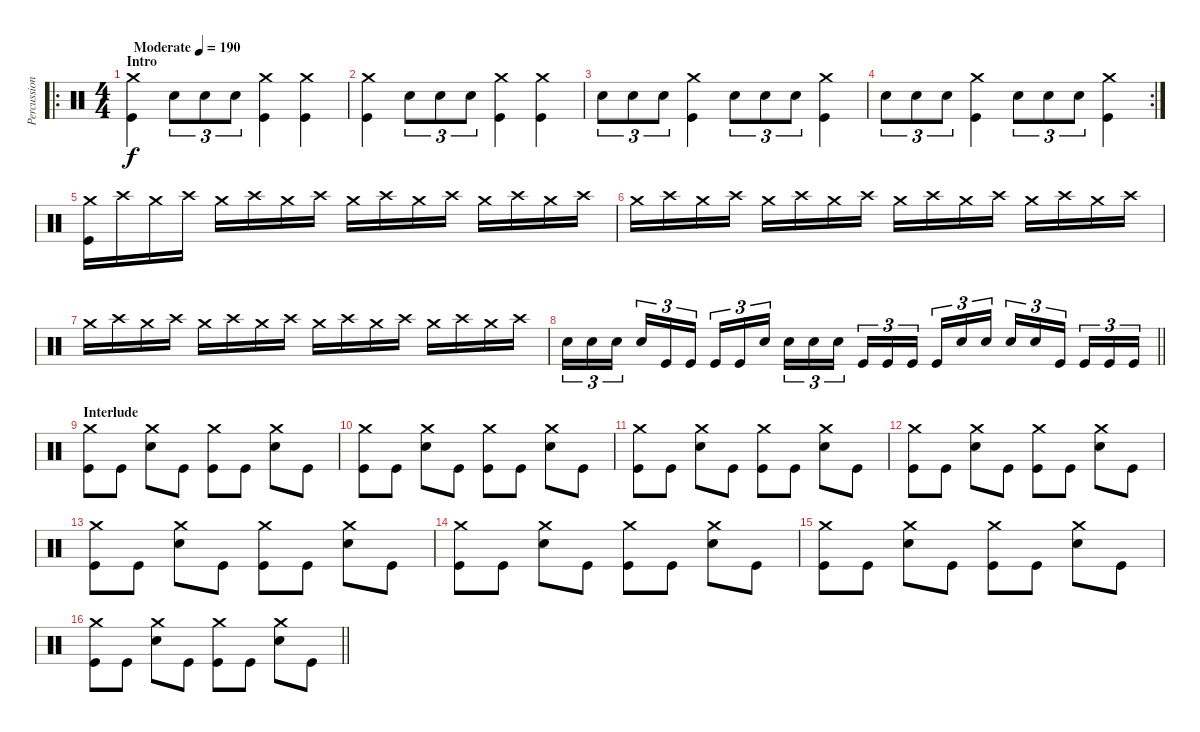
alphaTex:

\track ("Percussion" "Percussion") {instrument percussion}
\staff {score}
\articulation defaults
\ro
\ts (4 4)
\section ("" "Intro")
\tempo (190 "Moderate")
\clef neutral
\ks c
("Crash medium (hit)" "Kick (hit)").4{dy f} "Snare (hit) 2".8{tu (3 2)} "Snare (hit) 2".8{tu (3 2)} "Snare (hit) 2".8{tu (3 2)} ("Crash medium (hit)" "Kick (hit)").4 ("Crash medium (hit)" "Kick (hit)").4 |
("Crash medium (hit)" "Kick (hit)").4 "Snare (hit) 2".8{tu (3 2)} "Snare (hit) 2".8{tu (3 2)} "Snare (hit) 2".8{tu (3 2)} ("Crash medium (hit)" "Kick (hit)").4 ("Crash medium (hit)" "Kick (hit)").4 |
"Snare (hit) 2".8{tu (3 2)} "Snare (hit) 2".8{tu (3 2)} "Snare (hit) 2".8{tu (3 2)} ("Crash medium (hit)" "Kick (hit)").4 "Snare (hit) 2".8{tu (3 2)} "Snare (hit) 2".8{tu (3 2)} "Snare (hit) 2".8{tu (3 2)} ("Crash medium (hit)" "Kick (hit)").4 |
\rc 2 "Snare (hit) 2".8{tu (3 2)} "Snare (hit) 2".8{tu (3 2)} "Snare (hit) 2".8{tu (3 2)}
("Crash medium (hit)" "Kick (hit)").4 "Snare (hit) 2".8{tu (3 2)} "Snare (hit) 2".8{tu (3 2)} "Snare (hit) 2".8{tu (3 2)} ("Crash medium (hit)" "Kick (hit)").4 |
("Crash medium (hit)" "Kick (hit)").16 "Crash high (hit)".16 "Crash medium (hit)".16 "Crash high (hit)".16 "Crash medium (hit)".16 "Crash high (hit)".16 "Crash medium (hit)".16 "Crash high (hit)".16 "Crash medium (hit)".16 "Crash high (hit)".16 "Crash medium (hit)".16 "Crash high (hit)".16 "Crash medium (hit)".16 "Crash high (hit)".16 "Crash medium (hit)".16 "Crash high (hit)".16 |
"Crash medium (hit)".16 "Crash high (hit)".16 "Crash medium (hit)".16 "Crash high (hit)".16 "Crash medium (hit)".16 "Crash high (hit)".16 "Crash medium (hit)".16 "Crash high (hit)".16 "Crash medium (hit)".16 "Crash high (hit)".16 "Crash medium (hit)".16 "Crash high (hit)".16 "Crash medium (hit)".16 "Crash high (hit)".16 "Crash medium (hit)".16 "Crash high (hit)".16 |
"Crash medium (hit)".16 "Crash high (hit)".16 "Crash medium (hit)".16 "Crash high (hit)".16 "Crash medium (hit)".16 "Crash high (hit)".16 "Crash medium (hit)".16 "Crash high (hit)".16 "Crash medium (hit)".16 "Crash high (hit)".16 "Crash medium (hit)".16 "Crash high (hit)".16 "Crash medium (hit)".16 "Crash high (hit)".16 "Crash medium (hit)".16 "Crash high (hit)".16 |
\barLineRight lightlight "Snare (hit) 2".16{tu (3 2)} "Snare (hit) 2".16{tu (3 2)} "Snare (hit) 2".16{tu (3 2) beam splitsecondary} "Snare (hit) 2".16{tu (3 2)} "Kick (hit)".16{tu (3 2)} "Kick (hit)".16{tu (3 2)} "Kick (hit)".16{tu (3 2)} "Kick (hit)".16{tu (3 2)} "Snare (hit) 2".16{tu (3 2) beam splitsecondary} "Snare (hit) 2".16{tu (3 2)} "Snare (hit) 2".16{tu (3 2)} "Snare (hit) 2".16{tu (3 2)} "Kick (hit)".16{tu (3 2)} "Kick (hit)".16{tu (3 2)} "Kick (hit)".16{tu (3 2) beam splitsecondary} "Kick (hit)".16{tu (3 2)} "Snare (hit) 2".16{tu (3 2)} "Snare (hit) 2".16{tu (3 2)} "Snare (hit) 2".16{tu (3 2)} "Snare (hit) 2".16{tu (3 2)} "Kick (hit)".16{tu (3 2) beam splitsecondary} "Kick (hit)".16{tu (3 2)} "Kick (hit)".16{tu (3 2)} "Kick (hit)".16{tu (3 2)}
|
\section ("" "Interlude")
("Crash medium (hit)" "Kick (hit)").8 "Kick (hit)".8 ("Crash medium (hit)" "Snare (hit) 2").8 "Kick (hit)".8 ("Crash medium (hit)" "Kick (hit)").8 "Kick (hit)".8 ("Crash medium (hit)" "Snare (hit) 2").8 "Kick (hit)".8 |
("Crash medium (hit)" "Kick (hit)").8 "Kick (hit)".8 ("Crash medium (hit)" "Snare (hit) 2").8 "Kick (hit)".8 ("Crash medium (hit)" "Kick (hit)").8 "Kick (hit)".8 ("Crash medium (hit)" "Snare (hit) 2").8 "Kick (hit)".8 |
("Crash medium (hit)" "Kick (hit)").8 "Kick (hit)".8 ("Crash medium (hit)" "Snare (hit) 2").8 "Kick (hit)".8 ("Crash medium (hit)" "Kick (hit)").8 "Kick (hit)".8 ("Crash medium (hit)" "Snare (hit) 2").8 "Kick (hit)".8 |
("Crash medium (hit)" "Kick (hit)").8 "Kick (hit)".8 ("Crash medium (hit)" "Snare (hit) 2").8 "Kick (hit)".8 ("Crash medium (hit)" "Kick (hit)").8 "Kick (hit)".8 ("Crash medium (hit)" "Snare (hit) 2").8 "Kick (hit)".8 |
("Crash medium (hit)" "Kick (hit)").8 "Kick (hit)".8 ("Crash medium (hit)" "Snare (hit) 2").8 "Kick (hit)".8 ("Crash medium (hit)" "Kick (hit)").8 "Kick (hit)".8 ("Crash medium (hit)" "Snare (hit) 2").8 "Kick (hit)".8 |
("Crash medium (hit)" "Kick (hit)").8 "Kick (hit)".8 ("Crash medium (hit)" "Snare (hit) 2").8 "Kick (hit)".8 ("Crash medium (hit)" "Kick (hit)").8 "Kick (hit)".8 ("Crash medium (hit)" "Snare (hit) 2").8 "Kick (hit)".8 |
("Crash medium (hit)" "Kick (hit)").8 "Kick (hit)".8 ("Crash medium (hit)" "Snare (hit) 2").8 "Kick (hit)".8 ("Crash medium (hit)" "Kick (hit)").8 "Kick (hit)".8 ("Crash medium (hit)" "Snare (hit) 2").8 "Kick (hit)".8 |
\barLineRight lightlight
("Crash medium (hit)" "Kick (hit)").8 "Kick (hit)".8 ("Crash medium (hit)" "Snare (hit) 2").8 "Kick (hit)".8 ("Crash medium (hit)" "Kick (hit)").8 "Kick (hit)".8 ("Crash medium (hit)" "Snare (hit) 2").8 "Kick (hit)".8
